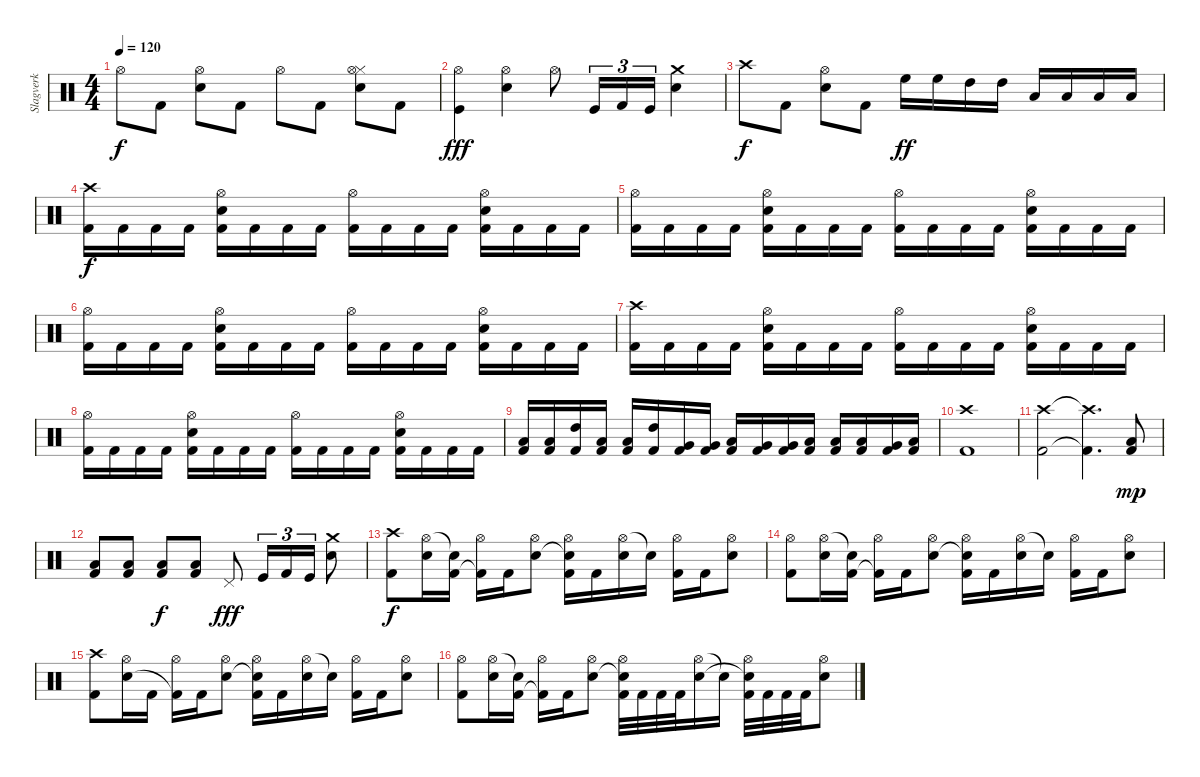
\track ("Slagverk" "Slagverk") {instrument percussion}
\staff {score}
\articulation defaults
\ts (4 4)
\tempo 120
\clef neutral
\ks c "Hi-Hat (open)".8{dy f} "Kick (hit) 2".8
("Hi-Hat (open)" "Snare (hit) 2").8 "Kick (hit) 2".8 "Hi-Hat (open)".8 "Kick (hit) 2".8 ("Hi-Hat (closed)" "Hi-Hat (open)" "Snare (hit) 2").8 "Kick (hit) 2".8 |
("Kick (hit)" "Hi-Hat (open)").4{dy fff} ("Snare (hit) 2" "Hi-Hat (open)").4 "Hi-Hat (open)".8 "Kick (hit)".16{tu (3 2)} "Kick (hit) 2".16{tu (3 2)} "Kick (hit)".16{tu (3 2)} ("Snare (hit) 2" "Crash medium (hit)").4 |
"Crash high (hit)".8{dy f} "Kick (hit) 2".8 ("Hi-Hat (open)" "Snare (hit) 2").8 "Kick (hit) 2".8 "High Floor Tom (hit)".16{dy ff} "High Floor Tom (hit)".16 "High Tom (hit)".16 "High Tom (hit)".16 "Low Tom (hit)".16 "Low Tom (hit)".16 "Low Floor Tom (hit)".16 "Low Floor Tom (hit)".16 |
("Crash high (hit)" "Kick (hit) 2").16{dy f} "Kick (hit) 2".16 "Kick (hit) 2".16 "Kick (hit) 2".16 ("Hi-Hat (open)" "Snare (hit) 2" "Kick (hit) 2").16 "Kick (hit) 2".16 "Kick (hit) 2".16 "Kick (hit) 2".16 ("Hi-Hat (open)" "Kick (hit) 2").16 "Kick (hit) 2".16 "Kick (hit) 2".16 "Kick (hit) 2".16 ("Hi-Hat (open)" "Snare (hit) 2" "Kick (hit) 2").16 "Kick (hit) 2".16 "Kick (hit) 2".16 "Kick (hit) 2".16 |
("Hi-Hat (open)" "Kick (hit) 2").16 "Kick (hit) 2".16 "Kick (hit) 2".16 "Kick (hit) 2".16 ("Hi-Hat (open)" "Snare (hit) 2" "Kick (hit) 2").16 "Kick (hit) 2".16 "Kick (hit) 2".16 "Kick (hit) 2".16 ("Hi-Hat (open)" "Kick (hit) 2").16 "Kick (hit) 2".16 "Kick (hit) 2".16 "Kick (hit) 2".16 ("Hi-Hat (open)" "Snare (hit) 2" "Kick (hit) 2").16 "Kick (hit) 2".16 "Kick (hit) 2".16 "Kick (hit) 2".16 |
("Hi-Hat (open)" "Kick (hit) 2").16 "Kick (hit) 2".16 "Kick (hit) 2".16 "Kick (hit) 2".16 ("Hi-Hat (open)" "Snare (hit) 2" "Kick (hit) 2").16 "Kick (hit) 2".16 "Kick (hit) 2".16 "Kick (hit) 2".16 ("Hi-Hat (open)" "Kick (hit) 2").16 "Kick (hit) 2".16 "Kick (hit) 2".16 "Kick (hit) 2".16 ("Hi-Hat (open)" "Snare (hit) 2" "Kick (hit) 2").16 "Kick (hit) 2".16 "Kick (hit) 2".16 "Kick (hit) 2".16 |
("Crash high (hit)" "Kick (hit) 2").16 "Kick (hit) 2".16 "Kick (hit) 2".16 "Kick (hit) 2".16 ("Hi-Hat (open)" "Snare (hit) 2" "Kick (hit) 2").16 "Kick (hit) 2".16 "Kick (hit) 2".16 "Kick (hit) 2".16 ("Hi-Hat (open)" "Kick (hit) 2").16 "Kick (hit) 2".16 "Kick (hit) 2".16 "Kick (hit) 2".16 ("Hi-Hat (open)" "Snare (hit) 2" "Kick (hit) 2").16 "Kick (hit) 2".16 "Kick (hit) 2".16 "Kick (hit) 2".16 |
("Hi-Hat (open)" "Kick (hit) 2").16 "Kick (hit) 2".16 "Kick (hit) 2".16 "Kick (hit) 2".16 ("Hi-Hat (open)" "Snare (hit) 2" "Kick (hit) 2").16 "Kick (hit) 2".16 "Kick (hit) 2".16 "Kick (hit) 2".16 ("Hi-Hat (open)" "Kick (hit) 2").16 "Kick (hit) 2".16 "Kick (hit) 2".16 "Kick (hit) 2".16 ("Hi-Hat (open)" "Snare (hit) 2" "Kick (hit) 2").16 "Kick (hit) 2".16 "Kick (hit) 2".16 "Kick (hit) 2".16 |
("Low Tom (hit)" "Kick (hit) 2").16 ("Low Tom (hit)" "Kick (hit) 2").16 ("High Tom (hit)" "Kick (hit) 2").16 ("Low Tom (hit)" "Kick (hit) 2").16 ("Low Tom (hit)" "Kick (hit) 2").16 ("High Tom (hit)" "Kick (hit) 2").16 ("Very Low Tom (hit)" "Kick (hit) 2").16 ("Very Low Tom (hit)" "Kick (hit) 2").16 ("Low Tom (hit)" "Kick (hit) 2").16 ("Very Low Tom (hit)" "Kick (hit) 2").16 ("Very Low Tom (hit)" "Kick (hit) 2").16 ("Low Tom (hit)" "Kick (hit) 2").16 ("Low Floor Tom (hit)" "Kick (hit) 2").16 ("Low Floor Tom (hit)" "Kick (hit) 2").16 ("Very Low Tom (hit)" "Kick (hit) 2").16 ("Low Floor Tom (hit)" "Kick (hit) 2").16 |
("Kick (hit) 2" "Crash high (hit)").1{volume 11} |
("Kick (hit) 2" "Crash high (hit)").2{volume 16} ("Kick (hit) 2"{t} "Crash high (hit)"{t}).4{d} ("Low Floor Tom (hit)" "Kick (hit) 2").8{dy mp} |
("Low Floor Tom (hit)" "Kick (hit) 2").8 ("Low Floor Tom (hit)" "Kick (hit) 2").8 ("Low Floor Tom (hit)" "Kick (hit) 2").8{dy f} ("Low Floor Tom (hit)" "Kick (hit) 2").8 "Pedal Hi-Hat (hit)".8{dy fff} "Kick (hit)".16{tu (3 2)} "Kick (hit) 2".16{tu (3 2)} "Kick (hit)".16{tu (3 2)} ("Snare (hit) 2" "Crash medium (hit)").8 |
("Crash high (hit)" "Kick (hit) 2").8{dy f} ("Hi-Hat (open)" "Electric Snare (hit)").16 ("Snare (hit)"{t} "Kick (hit) 2").16 ("Hi-Hat (open)" "Kick (hit) 2"{t}).16 "Kick (hit) 2".16 ("Hi-Hat (open)" "Electric Snare (hit)").8 ("Hi-Hat (open)" "Snare (hit) 2"{t} "Kick (hit) 2").16 "Kick (hit) 2".16 ("Hi-Hat (open)" "Electric Snare (hit)").16 "Snare (hit) 2"{t}.16 ("Hi-Hat (open)" "Kick (hit) 2").16 "Kick (hit) 2".16 ("Hi-Hat (open)" "Electric Snare (hit)").8 |
("Hi-Hat (open)" "Kick (hit) 2").8 ("Hi-Hat (open)" "Electric Snare (hit)").16 ("Snare (hit)"{t} "Kick (hit) 2").16 ("Hi-Hat (open)" "Kick (hit) 2"{t}).16 "Kick (hit) 2".16 ("Hi-Hat (open)" "Electric Snare (hit)").8 ("Hi-Hat (open)" "Snare (hit) 2"{t} "Kick (hit) 2").16 "Kick (hit) 2".16 ("Hi-Hat (open)" "Electric Snare (hit)").16 "Snare (hit) 2"{t}.16 ("Hi-Hat (open)" "Kick (hit) 2").16 "Kick (hit) 2".16 ("Hi-Hat (open)" "Electric Snare (hit)").8 |
("Crash high (hit)" "Kick (hit) 2").8 ("Hi-Hat (open)" "Electric Snare (hit)").16 "Kick (hit) 2".16 ("Hi-Hat (open)" "Kick (hit) 2"{t}).16 "Kick (hit) 2".16 ("Hi-Hat (open)" "Electric Snare (hit)").8 ("Hi-Hat (open)" "Snare (hit) 2"{t} "Kick (hit) 2").16 "Kick (hit) 2".16 ("Hi-Hat (open)" "Electric Snare (hit)").16 "Snare (hit) 2"{t}.16 ("Hi-Hat (open)" "Kick (hit) 2").16 "Kick (hit) 2".16 ("Hi-Hat (open)" "Electric Snare (hit)").8 |
("Hi-Hat (open)" "Kick (hit) 2").8 ("Hi-Hat (open)" "Electric Snare (hit)").16 ("Snare (hit)"{t} "Kick (hit) 2").16 ("Hi-Hat (open)" "Kick (hit) 2"{t}).16 "Kick (hit) 2".16 ("Hi-Hat (open)" "Electric Snare (hit)").8 ("Hi-Hat (open)" "Snare (hit) 2"{t} "Kick (hit) 2").32 "Kick (hit) 2".32 "Kick (hit) 2".32 "Kick (hit) 2".32 ("Hi-Hat (open)" "Electric Snare (hit)").16 "Snare (hit) 2"{t}.16 ("Hi-Hat (open)" "Snare (hit) 2"{t} "Kick (hit) 2").32 "Kick (hit) 2".32 "Kick (hit) 2".32 "Kick (hit) 2".32 ("Hi-Hat (open)" "Electric Snare (hit)").8
